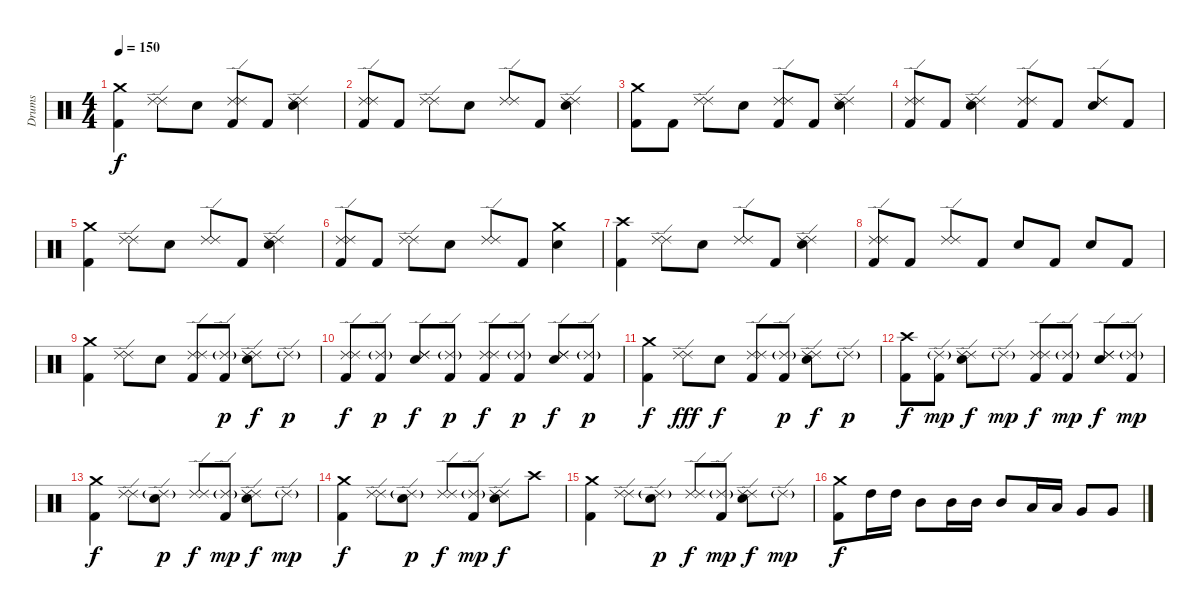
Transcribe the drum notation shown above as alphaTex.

\track ("Drums" "Drums") {instrument percussion}
\staff {score}
\articulation defaults
\ts (4 4)
\tempo 150
\clef neutral
\ks c
("Crash medium (hit)" "Kick (hit) 2").4{dy f} ("Ride (edge) 2" "Ride (edge) 2").8 "Electric Snare (hit)".8 ("Ride (edge) 2" "Ride (edge) 2" "Kick (hit) 2").8 "Kick (hit) 2".8 ("Ride (edge) 2" "Ride (edge) 2" "Electric Snare (hit)").4 |
("Ride (edge) 2" "Ride (edge) 2" "Kick (hit) 2").8 "Kick (hit) 2".8 ("Ride (edge) 2" "Ride (edge) 2").8 "Electric Snare (hit)".8 ("Ride (edge) 2" "Ride (edge) 2").8 "Kick (hit) 2".8 ("Ride (edge) 2" "Ride (edge) 2" "Electric Snare (hit)").4 |
("Crash medium (hit)" "Kick (hit) 2").8 "Kick (hit) 2".8 ("Ride (edge) 2" "Ride (edge) 2").8 "Electric Snare (hit)".8 ("Ride (edge) 2" "Ride (edge) 2" "Kick (hit) 2").8 "Kick (hit) 2".8 ("Ride (edge) 2" "Ride (edge) 2" "Electric Snare (hit)").4 |
("Ride (edge) 2" "Ride (edge) 2" "Kick (hit) 2").8 "Kick (hit) 2".8 ("Ride (edge) 2" "Ride (edge) 2" "Electric Snare (hit)").4 ("Ride (edge) 2" "Ride (edge) 2" "Kick (hit) 2").8 "Kick (hit) 2".8 ("Ride (edge) 2" "Ride (edge) 2" "Electric Snare (hit)").8 "Kick (hit) 2".8 |
("Crash medium (hit)" "Kick (hit) 2").4 ("Ride (edge) 2" "Ride (edge) 2").8 "Electric Snare (hit)".8 ("Ride (edge) 2" "Ride (edge) 2").8 "Kick (hit) 2".8 ("Ride (edge) 2" "Ride (edge) 2" "Electric Snare (hit)").4 |
("Ride (edge) 2" "Ride (edge) 2" "Kick (hit) 2").8 "Kick (hit) 2".8 ("Ride (edge) 2" "Ride (edge) 2").8 "Electric Snare (hit)".8 ("Ride (edge) 2" "Ride (edge) 2").8 "Kick (hit) 2".8 ("Crash medium (hit)" "Electric Snare (hit)").4 |
("Crash high (hit)" "Kick (hit) 2").4 ("Ride (edge) 2" "Ride (edge) 2").8 "Electric Snare (hit)".8 ("Ride (edge) 2" "Ride (edge) 2").8 "Kick (hit) 2".8 ("Ride (edge) 2" "Ride (edge) 2" "Electric Snare (hit)").4 |
("Ride (edge) 2" "Ride (edge) 2" "Kick (hit) 2").8 "Kick (hit) 2".8 ("Ride (edge) 2" "Ride (edge) 2").8 "Kick (hit) 2".8 "Electric Snare (hit)".8 "Kick (hit) 2".8 "Electric Snare (hit)".8 "Kick (hit) 2".8 |
("Crash medium (hit)" "Kick (hit) 2").4 ("Ride (edge) 2" "Ride (edge) 2").8 "Electric Snare (hit)".8 ("Ride (edge) 2" "Ride (edge) 2" "Kick (hit) 2").8 ("Ride (edge) 2"{g} "Kick (hit) 2").8{dy p} ("Ride (edge) 2" "Ride (edge) 2" "Electric Snare (hit)").8{dy f} "Ride (edge) 2"{g}.8{dy p} |
("Ride (edge) 2" "Ride (edge) 2" "Kick (hit) 2").8{dy f} ("Ride (edge) 2"{g} "Kick (hit) 2").8{dy p} ("Ride (edge) 2" "Ride (edge) 2" "Electric Snare (hit)").8{dy f} ("Ride (edge) 2"{g} "Kick (hit) 2").8{dy p} ("Ride (edge) 2" "Ride (edge) 2" "Kick (hit) 2").8{dy f} ("Ride (edge) 2"{g} "Kick (hit) 2").8{dy p} ("Ride (edge) 2" "Ride (edge) 2" "Electric Snare (hit)").8{dy f} ("Ride (edge) 2"{g} "Kick (hit) 2").8{dy p} |
("Crash medium (hit)" "Kick (hit) 2").4{dy f} ("Ride (edge) 2" "Ride (edge) 2").8{dy fff} "Electric Snare (hit)".8{dy f} ("Ride (edge) 2" "Ride (edge) 2" "Kick (hit) 2").8 ("Ride (edge) 2"{g} "Kick (hit) 2").8{dy p} ("Ride (edge) 2" "Ride (edge) 2" "Electric Snare (hit)").8{dy f} "Ride (edge) 2"{g}.8{dy p} |
("Crash high (hit)" "Kick (hit) 2").8{dy f} ("Ride (edge) 2"{g} "Kick (hit) 2").8{dy mp} ("Ride (edge) 2" "Ride (edge) 2" "Electric Snare (hit)").8{dy f} "Ride (edge) 2"{g}.8{dy mp} ("Ride (edge) 2" "Ride (edge) 2" "Kick (hit) 2").8{dy f} ("Ride (edge) 2"{g} "Kick (hit) 2").8{dy mp} ("Ride (edge) 2" "Ride (edge) 2" "Electric Snare (hit)").8{dy f} ("Ride (edge) 2"{g} "Kick (hit) 2").8{dy mp} |
("Crash medium (hit)" "Kick (hit) 2").4{dy f} ("Ride (edge) 2" "Ride (edge) 2").8 ("Ride (edge) 2"{g} "Electric Snare (hit)").8{dy p} ("Ride (edge) 2" "Ride (edge) 2").8{dy f} ("Ride (edge) 2"{g} "Kick (hit) 2").8{dy mp} ("Ride (edge) 2" "Ride (edge) 2" "Electric Snare (hit)").8{dy f} "Ride (edge) 2"{g}.8{dy mp} |
("Crash medium (hit)" "Kick (hit) 2").4{dy f} ("Ride (edge) 2" "Ride (edge) 2").8 ("Ride (edge) 2"{g} "Electric Snare (hit)").8{dy p} ("Ride (edge) 2" "Ride (edge) 2").8{dy f} ("Ride (edge) 2"{g} "Kick (hit) 2").8{dy mp} ("Ride (edge) 2" "Ride (edge) 2" "Electric Snare (hit)").8{dy f} "Crash high (hit)".8 |
("Crash medium (hit)" "Kick (hit) 2").4 ("Ride (edge) 2" "Ride (edge) 2").8 ("Ride (edge) 2"{g} "Electric Snare (hit)").8{dy p} ("Ride (edge) 2" "Ride (edge) 2").8{dy f} ("Ride (edge) 2"{g} "Kick (hit) 2").8{dy mp} ("Ride (edge) 2" "Ride (edge) 2" "Electric Snare (hit)").8{dy f} "Ride (edge) 2"{g}.8{dy mp} |
("Crash medium (hit)" "Kick (hit) 2").8{dy f} "High Tom (hit)".16 "High Tom (hit)".16 "Mid Tom (hit)".8 "Mid Tom (hit)".16 "Mid Tom (hit)".16 "Mid Tom (hit)".8 "Low Tom (hit)".16 "Low Tom (hit)".16 "Very Low Tom (hit)".8 "Very Low Tom (hit)".8
